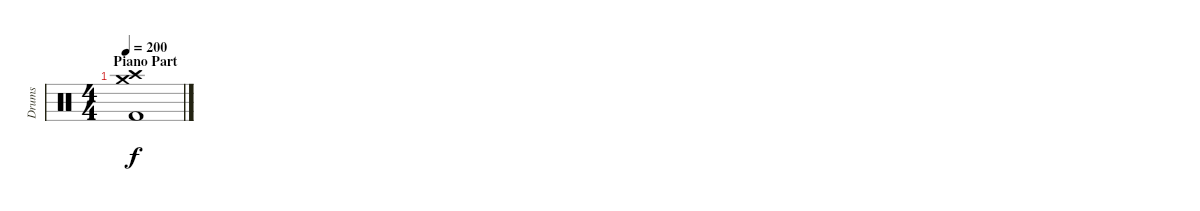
\track ("Drums" "Drums") {instrument percussion}
\staff {score}
\articulation defaults
\ts (4 4)
\section ("" "Piano Part")
\tempo 200
\clef neutral
\ks c
("Crash medium (hit)" "Crash high (hit)" "Kick (hit) 2").1{dy f}
